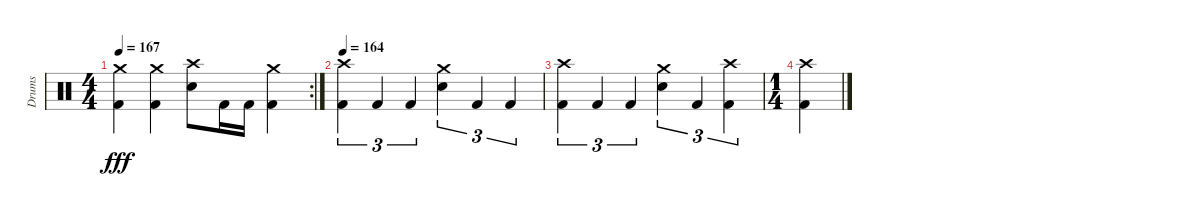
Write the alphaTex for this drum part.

\track ("Drums" "Drums") {instrument percussion}
\staff {score}
\articulation defaults
\rc 2
\ts (4 4)
\tempo 167
\clef neutral
\ks c
("Crash medium (hit)" "Kick (hit) 2").4{dy fff} ("Crash medium (hit)" "Kick (hit) 2").4 ("Crash high (hit)" "Snare (hit) 2").8 "Kick (hit) 2".16 "Kick (hit) 2".16 ("Crash medium (hit)" "Kick (hit) 2").4 |
\tempo 164
("Crash high (hit)" "Kick (hit) 2").4{tu (3 2)} "Kick (hit) 2".4{tu (3 2)} "Kick (hit) 2".4{tu (3 2)} ("Crash medium (hit)" "Snare (hit) 2").4{tu (3 2)} "Kick (hit) 2".4{tu (3 2)} "Kick (hit) 2".4{tu (3 2)} |
("Crash high (hit)" "Kick (hit) 2").4{tu (3 2)} "Kick (hit) 2".4{tu (3 2)} "Kick (hit) 2".4{tu (3 2)} ("Crash medium (hit)" "Snare (hit) 2").4{tu (3 2)} "Kick (hit) 2".4{tu (3 2)} ("Crash high (hit)" "Kick (hit) 2").4{tu (3 2)} |
\ts (1 4)
("Crash high (hit)" "Kick (hit) 2").4
